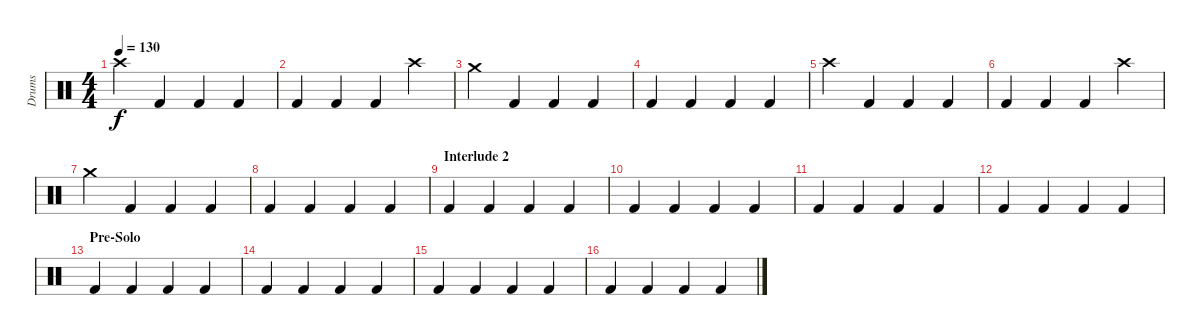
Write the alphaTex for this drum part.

\track ("Drums" "Drums") {instrument percussion}
\staff {score}
\articulation defaults
\ts (4 4)
\tempo 130
\clef neutral
\ks c "Crash high (hit)".4{dy f} "Kick (hit) 2".4 "Kick (hit) 2".4 "Kick (hit) 2".4
|
"Kick (hit) 2".4 "Kick (hit) 2".4 "Kick (hit) 2".4 "Crash high (hit)".4 |
"Crash medium (hit)".4 "Kick (hit) 2".4 "Kick (hit) 2".4 "Kick (hit) 2".4 |
"Kick (hit) 2".4 "Kick (hit) 2".4 "Kick (hit) 2".4 "Kick (hit) 2".4 |
"Crash high (hit)".4 "Kick (hit) 2".4 "Kick (hit) 2".4 "Kick (hit) 2".4 |
"Kick (hit) 2".4 "Kick (hit) 2".4 "Kick (hit) 2".4 "Crash high (hit)".4 |
"Crash medium (hit)".4 "Kick (hit) 2".4 "Kick (hit) 2".4 "Kick (hit) 2".4 |
"Kick (hit) 2".4 "Kick (hit) 2".4 "Kick (hit) 2".4 "Kick (hit) 2".4 |
\section ("" "Interlude 2")
"Kick (hit) 2".4 "Kick (hit) 2".4 "Kick (hit) 2".4 "Kick (hit) 2".4 |
"Kick (hit) 2".4 "Kick (hit) 2".4 "Kick (hit) 2".4 "Kick (hit) 2".4 |
"Kick (hit) 2".4 "Kick (hit) 2".4 "Kick (hit) 2".4 "Kick (hit) 2".4 |
"Kick (hit) 2".4 "Kick (hit) 2".4 "Kick (hit) 2".4 "Kick (hit) 2".4 |
\section ("" "Pre-Solo")
"Kick (hit) 2".4 "Kick (hit) 2".4 "Kick (hit) 2".4 "Kick (hit) 2".4 |
"Kick (hit) 2".4 "Kick (hit) 2".4 "Kick (hit) 2".4 "Kick (hit) 2".4 |
"Kick (hit) 2".4 "Kick (hit) 2".4 "Kick (hit) 2".4 "Kick (hit) 2".4 |
"Kick (hit) 2".4 "Kick (hit) 2".4 "Kick (hit) 2".4 "Kick (hit) 2".4
